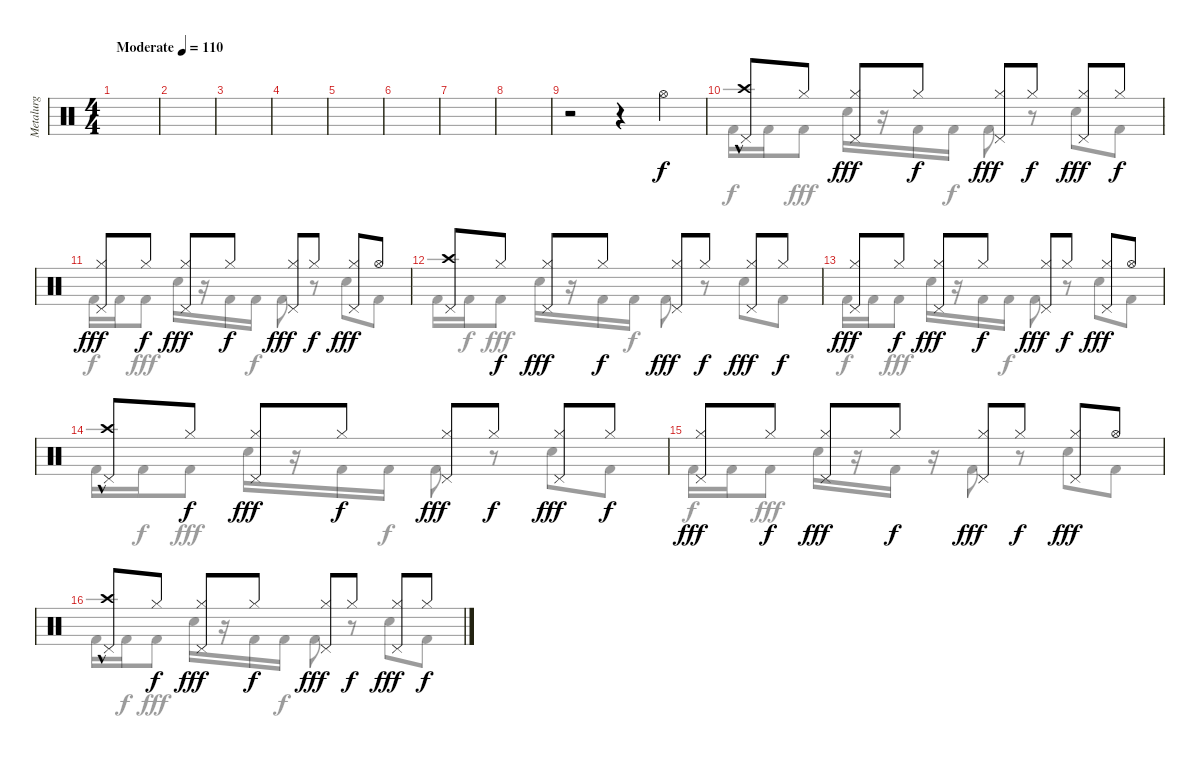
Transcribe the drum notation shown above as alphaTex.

\track ("Metalurg" "Metalurg") {instrument percussion}
\staff {score}
\articulation defaults
\voice
\ts (4 4)
\tempo (110 "Moderate")
\clef neutral
\ks c
|
|
|
|
|
|
|
|
r.2 r.4 "Hi-Hat (open)".4 |
("Crash high (hit)"{hac} "Pedal Hi-Hat (hit)").8 "Hi-Hat (closed)".8{dy f} ("Hi-Hat (closed)" "Pedal Hi-Hat (hit)").8{dy fff} "Hi-Hat (closed)".8{dy f} ("Hi-Hat (closed)" "Pedal Hi-Hat (hit)").8{dy fff} "Hi-Hat (closed)".8{dy f} ("Hi-Hat (closed)" "Pedal Hi-Hat (hit)").8{dy fff} "Hi-Hat (closed)".8{dy f} |
("Hi-Hat (closed)" "Pedal Hi-Hat (hit)").8{dy fff} "Hi-Hat (closed)".8{dy f} ("Hi-Hat (closed)" "Pedal Hi-Hat (hit)").8{dy fff} "Hi-Hat (closed)".8{dy f} ("Hi-Hat (closed)" "Pedal Hi-Hat (hit)").8{dy fff} "Hi-Hat (closed)".8{dy f} ("Hi-Hat (closed)" "Pedal Hi-Hat (hit)").8{dy fff} "Hi-Hat (open)".8 |
("Crash high (hit)" "Pedal Hi-Hat (hit)").8 "Hi-Hat (closed)".8{dy f} ("Hi-Hat (closed)" "Pedal Hi-Hat (hit)").8{dy fff} "Hi-Hat (closed)".8{dy f} ("Hi-Hat (closed)" "Pedal Hi-Hat (hit)").8{dy fff} "Hi-Hat (closed)".8{dy f} ("Hi-Hat (closed)" "Pedal Hi-Hat (hit)").8{dy fff} "Hi-Hat (closed)".8{dy f} |
("Hi-Hat (closed)" "Pedal Hi-Hat (hit)").8{dy fff} "Hi-Hat (closed)".8{dy f} ("Hi-Hat (closed)" "Pedal Hi-Hat (hit)").8{dy fff} "Hi-Hat (closed)".8{dy f} ("Hi-Hat (closed)" "Pedal Hi-Hat (hit)").8{dy fff} "Hi-Hat (closed)".8{dy f} ("Hi-Hat (closed)" "Pedal Hi-Hat (hit)").8{dy fff} "Hi-Hat (open)".8 |
("Crash high (hit)"{hac} "Pedal Hi-Hat (hit)").8 "Hi-Hat (closed)".8{dy f} ("Hi-Hat (closed)" "Pedal Hi-Hat (hit)").8{dy fff} "Hi-Hat (closed)".8{dy f} ("Hi-Hat (closed)" "Pedal Hi-Hat (hit)").8{dy fff} "Hi-Hat (closed)".8{dy f} ("Hi-Hat (closed)" "Pedal Hi-Hat (hit)").8{dy fff} "Hi-Hat (closed)".8{dy f} |
("Hi-Hat (closed)" "Pedal Hi-Hat (hit)").8{dy fff} "Hi-Hat (closed)".8{dy f} ("Hi-Hat (closed)" "Pedal Hi-Hat (hit)").8{dy fff} "Hi-Hat (closed)".8{dy f} ("Hi-Hat (closed)" "Pedal Hi-Hat (hit)").8{dy fff} "Hi-Hat (closed)".8{dy f} ("Hi-Hat (closed)" "Pedal Hi-Hat (hit)").8{dy fff} "Hi-Hat (open)".8 |
("Crash high (hit)"{hac} "Pedal Hi-Hat (hit)").8 "Hi-Hat (closed)".8{dy f} ("Hi-Hat (closed)" "Pedal Hi-Hat (hit)").8{dy fff} "Hi-Hat (closed)".8{dy f} ("Hi-Hat (closed)" "Pedal Hi-Hat (hit)").8{dy fff} "Hi-Hat (closed)".8{dy f} ("Hi-Hat (closed)" "Pedal Hi-Hat (hit)").8{dy fff} "Hi-Hat (closed)".8{dy f}
\voice
\clef neutral
\ottava regular
\simile none
\ks c
|
|
|
|
|
|
|
|
|
"Kick (hit) 2".16 "Kick (hit) 2".16{dy f} "Kick (hit) 2".8{dy fff} "Snare (hit) 2".16 r.16 "Kick (hit) 2".16 "Kick (hit) 2".16{dy f} "Kick (hit) 2".8{dy fff} r.8 "Snare (hit) 2".8 "Kick (hit) 2".8 |
"Kick (hit) 2".16{dy f} "Kick (hit) 2".16 "Kick (hit) 2".8{dy fff} "Snare (hit) 2".16 r.16 "Kick (hit) 2".16 "Kick (hit) 2".16{dy f} "Kick (hit) 2".8{dy fff} r.8 "Snare (hit) 2".8 "Kick (hit) 2".8 |
"Kick (hit) 2".16 "Kick (hit) 2".16{dy f} "Kick (hit) 2".8{dy fff} "Snare (hit) 2".16 r.16 "Kick (hit) 2".16 "Kick (hit) 2".16{dy f} "Kick (hit) 2".8{dy fff} r.8 "Snare (hit) 2".8 "Kick (hit) 2".8 |
"Kick (hit) 2".16{dy f} "Kick (hit) 2".16 "Kick (hit) 2".8{dy fff} "Snare (hit) 2".16 r.16 "Kick (hit) 2".16 "Kick (hit) 2".16{dy f} "Kick (hit) 2".8{dy fff} r.8 "Snare (hit) 2".8 "Kick (hit) 2".8 |
"Kick (hit) 2".16 "Kick (hit) 2".16{dy f} "Kick (hit) 2".8{dy fff} "Snare (hit) 2".16 r.16 "Kick (hit) 2".16 "Kick (hit) 2".16{dy f} "Kick (hit) 2".8{dy fff} r.8 "Snare (hit) 2".8 "Kick (hit) 2".8 |
"Kick (hit) 2".16{dy f} "Kick (hit) 2".16 "Kick (hit) 2".8{dy fff} "Snare (hit) 2".16 r.16 "Kick (hit) 2".16 r.16 "Kick (hit) 2".8 r.8 "Snare (hit) 2".8 "Kick (hit) 2".8 |
"Kick (hit) 2".16 "Kick (hit) 2".16{dy f} "Kick (hit) 2".8{dy fff} "Snare (hit) 2".16 r.16 "Kick (hit) 2".16 "Kick (hit) 2".16{dy f} "Kick (hit) 2".8{dy fff} r.8 "Snare (hit) 2".8 "Kick (hit) 2".8
